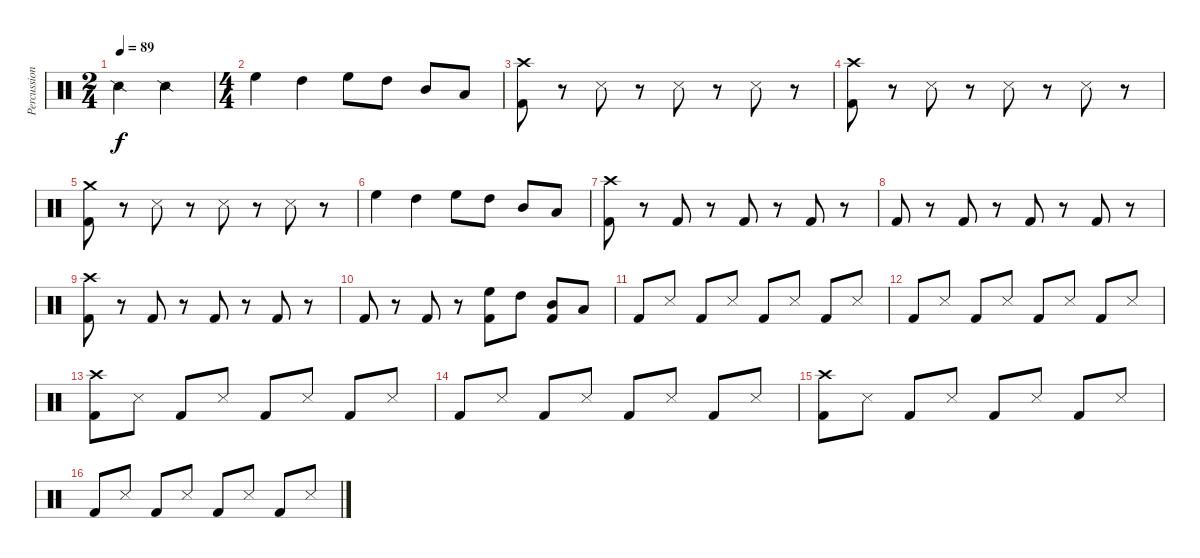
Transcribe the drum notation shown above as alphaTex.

\track ("Percussion" "Percussion") {instrument percussion}
\staff {score}
\articulation defaults
\ts (2 4)
\tempo 89
\clef neutral
\ks c "Snare (side stick) 2".4{dy f} "Snare (side stick) 2".4
|
\ts (4 4)
"High Floor Tom (hit)".4 "High Tom (hit)".4 "High Floor Tom (hit)".8 "High Tom (hit)".8 "Mid Tom (hit)".8 "Low Tom (hit)".8 |
("Crash high (hit)" "Kick (hit) 2").8 r.8 "Snare (side stick) 3".8 r.8 "Snare (side stick) 3".8 r.8 "Snare (side stick) 3".8 r.8 |
("Crash high (hit)" "Kick (hit) 2").8 r.8 "Snare (side stick) 3".8 r.8 "Snare (side stick) 3".8 r.8 "Snare (side stick) 3".8 r.8 |
("Crash medium (hit)" "Kick (hit) 2").8 r.8 "Snare (side stick) 3".8 r.8 "Snare (side stick) 3".8 r.8 "Snare (side stick) 3".8 r.8 |
"High Floor Tom (hit)".4 "High Tom (hit)".4 "High Floor Tom (hit)".8 "High Tom (hit)".8 "Mid Tom (hit)".8 "Low Tom (hit)".8 |
("Crash high (hit)" "Kick (hit) 2").8 r.8 "Kick (hit) 2".8 r.8 "Kick (hit) 2".8 r.8 "Kick (hit) 2".8 r.8 |
"Kick (hit) 2".8 r.8 "Kick (hit) 2".8 r.8 "Kick (hit) 2".8 r.8 "Kick (hit) 2".8 r.8 |
("Crash high (hit)" "Kick (hit) 2").8 r.8 "Kick (hit) 2".8 r.8 "Kick (hit) 2".8 r.8 "Kick (hit) 2".8 r.8 |
"Kick (hit) 2".8 r.8 "Kick (hit) 2".8 r.8 ("High Floor Tom (hit)" "Kick (hit) 2").8 "High Tom (hit)".8 ("Mid Tom (hit)" "Kick (hit) 2").8 "Low Tom (hit)".8 |
"Kick (hit) 2".8 "Snare (side stick) 3".8 "Kick (hit) 2".8 "Snare (side stick) 3".8 "Kick (hit) 2".8 "Snare (side stick) 3".8 "Kick (hit) 2".8 "Snare (side stick) 3".8 |
"Kick (hit) 2".8 "Snare (side stick) 3".8 "Kick (hit) 2".8 "Snare (side stick) 3".8 "Kick (hit) 2".8 "Snare (side stick) 3".8 "Kick (hit) 2".8 "Snare (side stick) 3".8 |
("Crash high (hit)" "Kick (hit) 2").8 "Snare (side stick) 3".8 "Kick (hit) 2".8 "Snare (side stick) 3".8 "Kick (hit) 2".8 "Snare (side stick) 3".8 "Kick (hit) 2".8 "Snare (side stick) 3".8 |
"Kick (hit) 2".8 "Snare (side stick) 3".8 "Kick (hit) 2".8 "Snare (side stick) 3".8 "Kick (hit) 2".8 "Snare (side stick) 3".8 "Kick (hit) 2".8 "Snare (side stick) 3".8 |
("Crash high (hit)" "Kick (hit) 2").8 "Snare (side stick) 3".8 "Kick (hit) 2".8 "Snare (side stick) 3".8 "Kick (hit) 2".8 "Snare (side stick) 3".8 "Kick (hit) 2".8 "Snare (side stick) 3".8 |
"Kick (hit) 2".8 "Snare (side stick) 3".8 "Kick (hit) 2".8 "Snare (side stick) 3".8 "Kick (hit) 2".8 "Snare (side stick) 3".8 "Kick (hit) 2".8 "Snare (side stick) 3".8
